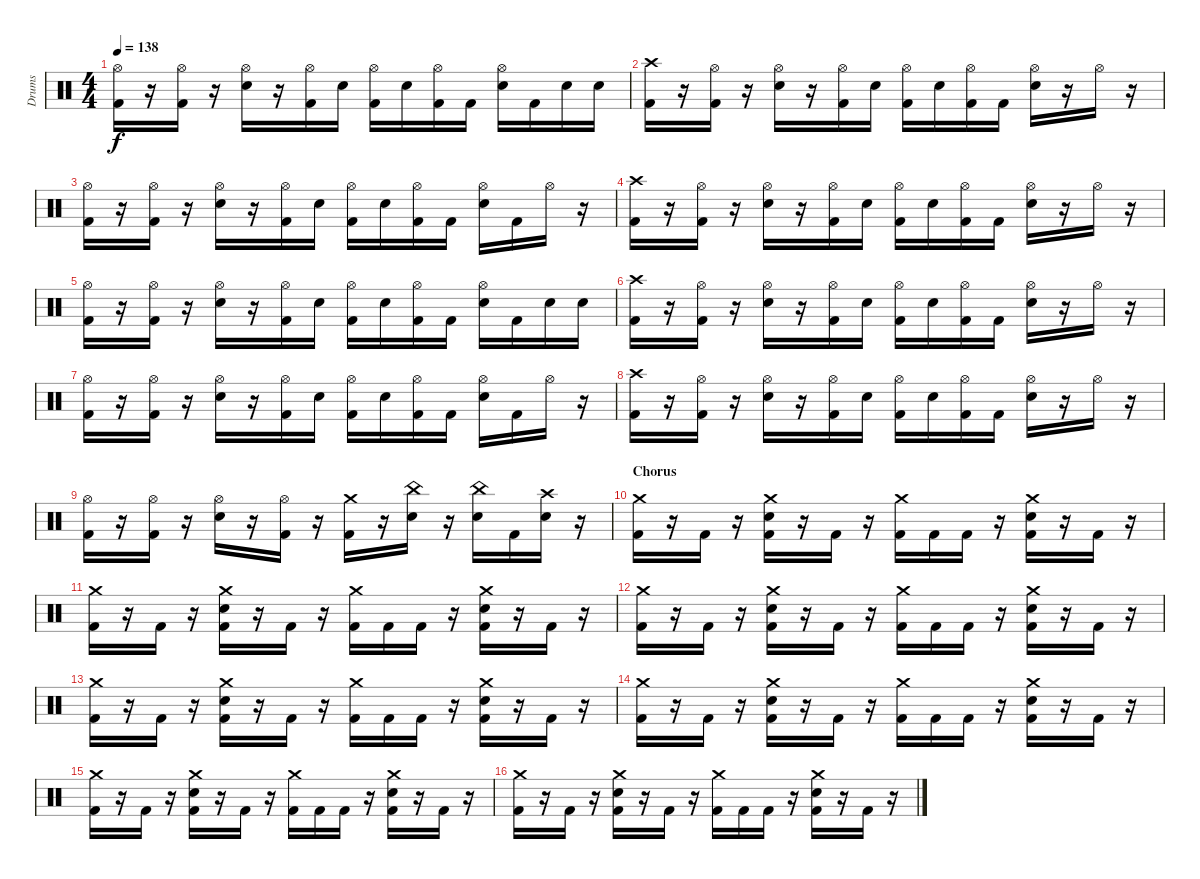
\track ("Drums" "Drums") {instrument percussion}
\staff {score}
\articulation defaults
\ts (4 4)
\tempo 138
\clef neutral
\ks c
("Hi-Hat (open)" "Kick (hit) 2").16{dy f} r.16 ("Hi-Hat (open)" "Kick (hit) 2").16 r.16 ("Hi-Hat (open)" "Snare (hit) 2").16 r.16 ("Hi-Hat (open)" "Kick (hit) 2").16 "Snare (hit) 2".16 ("Hi-Hat (open)" "Kick (hit) 2").16 "Snare (hit) 2".16 ("Hi-Hat (open)" "Kick (hit) 2").16 "Kick (hit) 2".16 ("Hi-Hat (open)" "Snare (hit) 2").16 "Kick (hit) 2".16 "Snare (hit) 2".16 "Snare (hit) 2".16 |
("Crash high (hit)" "Kick (hit) 2").16 r.16 ("Hi-Hat (open)" "Kick (hit) 2").16 r.16 ("Hi-Hat (open)" "Snare (hit) 2").16 r.16 ("Hi-Hat (open)" "Kick (hit) 2").16 "Snare (hit) 2".16 ("Hi-Hat (open)" "Kick (hit) 2").16 "Snare (hit) 2".16 ("Hi-Hat (open)" "Kick (hit) 2").16 "Kick (hit) 2".16 ("Hi-Hat (open)" "Snare (hit) 2").16 r.16 "Hi-Hat (open)".16 r.16 |
("Hi-Hat (open)" "Kick (hit) 2").16 r.16 ("Hi-Hat (open)" "Kick (hit) 2").16 r.16 ("Hi-Hat (open)" "Snare (hit) 2").16 r.16 ("Hi-Hat (open)" "Kick (hit) 2").16 "Snare (hit) 2".16 ("Hi-Hat (open)" "Kick (hit) 2").16 "Snare (hit) 2".16 ("Hi-Hat (open)" "Kick (hit) 2").16 "Kick (hit) 2".16 ("Hi-Hat (open)" "Snare (hit) 2").16 "Kick (hit) 2".16 "Hi-Hat (open)".16 r.16 |
("Crash high (hit)" "Kick (hit) 2").16 r.16 ("Hi-Hat (open)" "Kick (hit) 2").16 r.16 ("Hi-Hat (open)" "Snare (hit) 2").16 r.16 ("Hi-Hat (open)" "Kick (hit) 2").16 "Snare (hit) 2".16 ("Hi-Hat (open)" "Kick (hit) 2").16 "Snare (hit) 2".16 ("Hi-Hat (open)" "Kick (hit) 2").16 "Kick (hit) 2".16 ("Hi-Hat (open)" "Snare (hit) 2").16 r.16 "Hi-Hat (open)".16 r.16 |
("Hi-Hat (open)" "Kick (hit) 2").16 r.16 ("Hi-Hat (open)" "Kick (hit) 2").16 r.16 ("Hi-Hat (open)" "Snare (hit) 2").16 r.16 ("Hi-Hat (open)" "Kick (hit) 2").16 "Snare (hit) 2".16 ("Hi-Hat (open)" "Kick (hit) 2").16 "Snare (hit) 2".16 ("Hi-Hat (open)" "Kick (hit) 2").16 "Kick (hit) 2".16 ("Hi-Hat (open)" "Snare (hit) 2").16 "Kick (hit) 2".16 "Snare (hit) 2".16 "Snare (hit) 2".16 |
("Crash high (hit)" "Kick (hit) 2").16 r.16 ("Hi-Hat (open)" "Kick (hit) 2").16 r.16 ("Hi-Hat (open)" "Snare (hit) 2").16 r.16 ("Hi-Hat (open)" "Kick (hit) 2").16 "Snare (hit) 2".16 ("Hi-Hat (open)" "Kick (hit) 2").16 "Snare (hit) 2".16 ("Hi-Hat (open)" "Kick (hit) 2").16 "Kick (hit) 2".16 ("Hi-Hat (open)" "Snare (hit) 2").16 r.16 "Hi-Hat (open)".16 r.16 |
("Hi-Hat (open)" "Kick (hit) 2").16 r.16 ("Hi-Hat (open)" "Kick (hit) 2").16 r.16 ("Hi-Hat (open)" "Snare (hit) 2").16 r.16 ("Hi-Hat (open)" "Kick (hit) 2").16 "Snare (hit) 2".16 ("Hi-Hat (open)" "Kick (hit) 2").16 "Snare (hit) 2".16 ("Hi-Hat (open)" "Kick (hit) 2").16 "Kick (hit) 2".16 ("Hi-Hat (open)" "Snare (hit) 2").16 "Kick (hit) 2".16 "Hi-Hat (open)".16 r.16 |
("Crash high (hit)" "Kick (hit) 2").16 r.16 ("Hi-Hat (open)" "Kick (hit) 2").16 r.16 ("Hi-Hat (open)" "Snare (hit) 2").16 r.16 ("Hi-Hat (open)" "Kick (hit) 2").16 "Snare (hit) 2".16 ("Hi-Hat (open)" "Kick (hit) 2").16 "Snare (hit) 2".16 ("Hi-Hat (open)" "Kick (hit) 2").16 "Kick (hit) 2".16 ("Hi-Hat (open)" "Snare (hit) 2").16 r.16 "Hi-Hat (open)".16 r.16 |
("Hi-Hat (open)" "Kick (hit) 2").16 r.16 ("Hi-Hat (open)" "Kick (hit) 2").16 r.16 ("Hi-Hat (open)" "Snare (hit) 2").16 r.16 ("Hi-Hat (open)" "Kick (hit) 2").16 r.16 ("Crash medium (hit)" "Kick (hit) 2").16 r.16 ("China (hit)" "Snare (hit) 2").16 r.16 ("China (hit)" "Snare (hit) 2").16 "Kick (hit) 2".16 ("Crash high (hit)" "Snare (hit) 2").16 r.16 |
\section ("" "Chorus")
("Crash medium (hit)" "Kick (hit) 2").16 r.16 "Kick (hit) 2".16 r.16 ("Crash medium (hit)" "Snare (hit) 2" "Kick (hit) 2").16 r.16 "Kick (hit) 2".16 r.16 ("Crash medium (hit)" "Kick (hit) 2").16 "Kick (hit) 2".16 "Kick (hit) 2".16 r.16 ("Crash medium (hit)" "Snare (hit) 2" "Kick (hit) 2").16 r.16 "Kick (hit) 2".16 r.16 |
("Crash medium (hit)" "Kick (hit) 2").16 r.16 "Kick (hit) 2".16 r.16 ("Crash medium (hit)" "Snare (hit) 2" "Kick (hit) 2").16 r.16 "Kick (hit) 2".16 r.16 ("Crash medium (hit)" "Kick (hit) 2").16 "Kick (hit) 2".16 "Kick (hit) 2".16 r.16 ("Crash medium (hit)" "Snare (hit) 2" "Kick (hit) 2").16 r.16 "Kick (hit) 2".16 r.16 |
("Crash medium (hit)" "Kick (hit) 2").16 r.16 "Kick (hit) 2".16 r.16 ("Crash medium (hit)" "Snare (hit) 2" "Kick (hit) 2").16 r.16 "Kick (hit) 2".16 r.16 ("Crash medium (hit)" "Kick (hit) 2").16 "Kick (hit) 2".16 "Kick (hit) 2".16 r.16 ("Crash medium (hit)" "Snare (hit) 2" "Kick (hit) 2").16 r.16 "Kick (hit) 2".16 r.16 |
("Crash medium (hit)" "Kick (hit) 2").16 r.16 "Kick (hit) 2".16 r.16 ("Crash medium (hit)" "Snare (hit) 2" "Kick (hit) 2").16 r.16 "Kick (hit) 2".16 r.16 ("Crash medium (hit)" "Kick (hit) 2").16 "Kick (hit) 2".16 "Kick (hit) 2".16 r.16 ("Crash medium (hit)" "Snare (hit) 2" "Kick (hit) 2").16 r.16 "Kick (hit) 2".16 r.16 |
("Crash medium (hit)" "Kick (hit) 2").16 r.16 "Kick (hit) 2".16 r.16 ("Crash medium (hit)" "Snare (hit) 2" "Kick (hit) 2").16 r.16 "Kick (hit) 2".16 r.16 ("Crash medium (hit)" "Kick (hit) 2").16 "Kick (hit) 2".16 "Kick (hit) 2".16 r.16 ("Crash medium (hit)" "Snare (hit) 2" "Kick (hit) 2").16 r.16 "Kick (hit) 2".16 r.16 |
("Crash medium (hit)" "Kick (hit) 2").16 r.16 "Kick (hit) 2".16 r.16 ("Crash medium (hit)" "Snare (hit) 2" "Kick (hit) 2").16 r.16 "Kick (hit) 2".16 r.16 ("Crash medium (hit)" "Kick (hit) 2").16 "Kick (hit) 2".16 "Kick (hit) 2".16 r.16 ("Crash medium (hit)" "Snare (hit) 2" "Kick (hit) 2").16 r.16 "Kick (hit) 2".16 r.16 |
("Crash medium (hit)" "Kick (hit) 2").16 r.16 "Kick (hit) 2".16 r.16 ("Crash medium (hit)" "Snare (hit) 2" "Kick (hit) 2").16 r.16 "Kick (hit) 2".16 r.16 ("Crash medium (hit)" "Kick (hit) 2").16 "Kick (hit) 2".16 "Kick (hit) 2".16 r.16 ("Crash medium (hit)" "Snare (hit) 2" "Kick (hit) 2").16 r.16 "Kick (hit) 2".16 r.16
